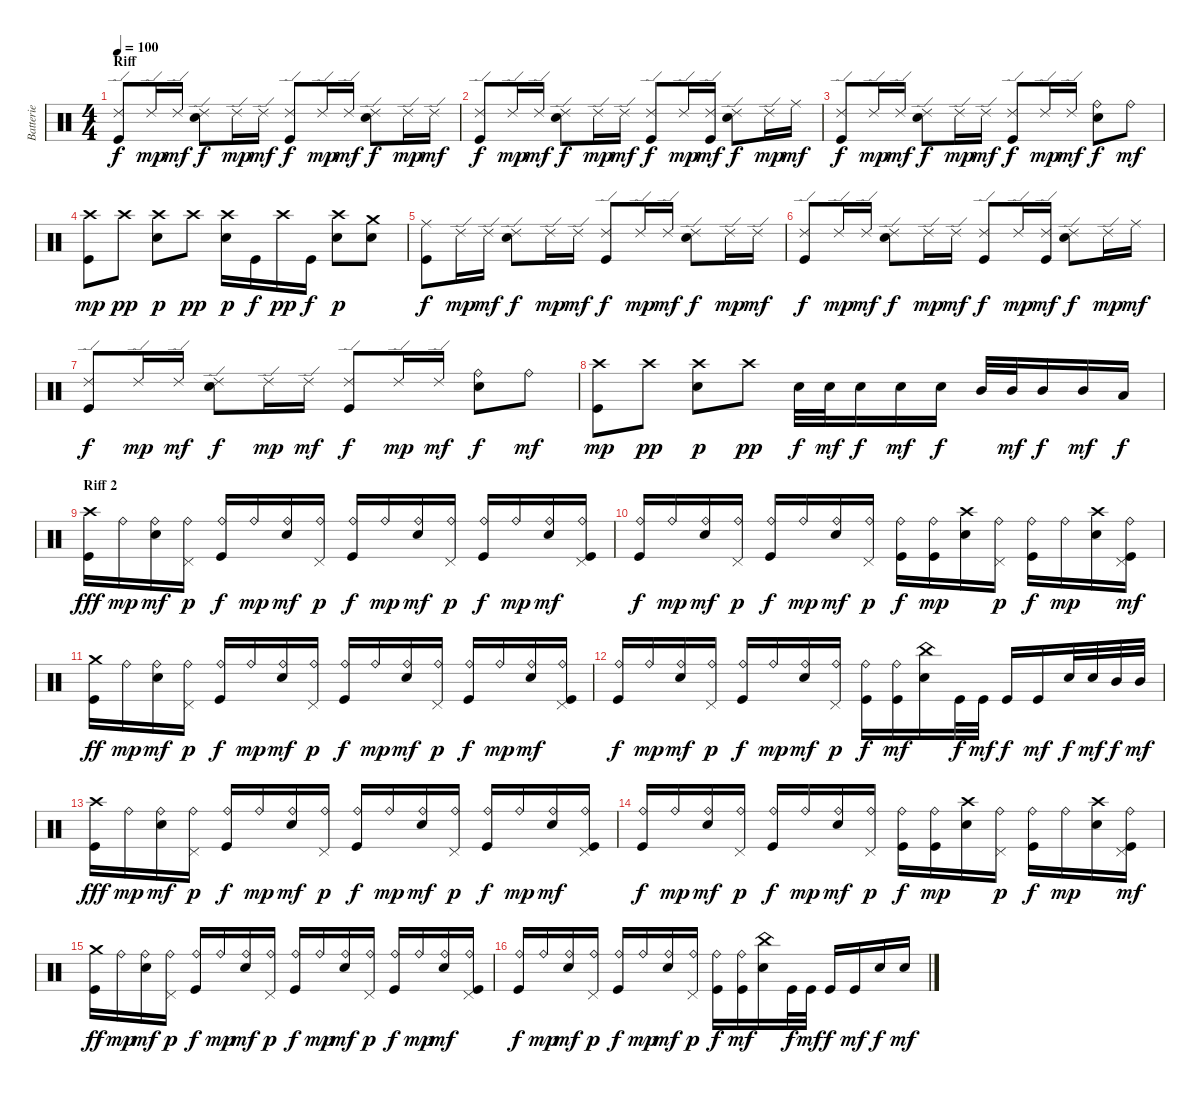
\track ("Batterie" "Batterie") {instrument percussion}
\staff {score}
\articulation defaults
\ts (4 4)
\section ("" "Riff")
\tempo 100
\clef neutral
\ks c
("Ride (edge) 2" "Kick (hit)").8{dy f} "Ride (edge) 2".16{dy mp} "Ride (edge) 2".16{dy mf} ("Ride (edge) 2" "Snare (hit) 2").8{dy f} "Ride (edge) 2".16{dy mp} "Ride (edge) 2".16{dy mf} ("Ride (edge) 2" "Kick (hit)").8{dy f} "Ride (edge) 2".16{dy mp} "Ride (edge) 2".16{dy mf} ("Ride (edge) 2" "Snare (hit) 2").8{dy f} "Ride (edge) 2".16{dy mp} "Ride (edge) 2".16{dy mf} |
("Ride (edge) 2" "Kick (hit)").8{dy f} "Ride (edge) 2".16{dy mp} "Ride (edge) 2".16{dy mf} ("Ride (edge) 2" "Snare (hit) 2").8{dy f} "Ride (edge) 2".16{dy mp} "Ride (edge) 2".16{dy mf} ("Ride (edge) 2" "Kick (hit)").8{dy f} "Ride (edge) 2".16{dy mp} ("Ride (edge) 2" "Kick (hit)").16{dy mf} ("Ride (edge) 2" "Snare (hit) 2").8{dy f} "Ride (edge) 2".16{dy mp} "Ride (middle)".16{dy mf} |
("Ride (edge) 2" "Kick (hit)").8{dy f} "Ride (edge) 2".16{dy mp} "Ride (edge) 2".16{dy mf} ("Ride (edge) 2" "Snare (hit) 2").8{dy f} "Ride (edge) 2".16{dy mp} "Ride (edge) 2".16{dy mf} ("Ride (edge) 2" "Kick (hit)").8{dy f} "Ride (edge) 2".16{dy mp} "Ride (edge) 2".16{dy mf} ("Ride (bell)" "Snare (hit) 2").8{dy f} "Ride (bell)".8{dy mf} |
("Crash high (hit)" "Kick (hit)").8{dy mp} "Crash high (hit)".8{dy pp} ("Crash high (hit)" "Snare (hit) 2").8{dy p} "Crash high (hit)".8{dy pp} ("Crash high (hit)" "Snare (hit) 2").16{dy p} "Kick (hit)".16{dy f} "Crash high (hit)".16{dy pp} "Kick (hit)".16{dy f} ("Crash high (hit)" "Snare (hit) 2").8{dy p} ("Crash medium (hit)" "Snare (hit) 2").8 |
("Ride (middle)" "Kick (hit)").8{dy f} "Ride (edge) 2".16{dy mp} "Ride (edge) 2".16{dy mf} ("Ride (edge) 2" "Snare (hit) 2").8{dy f} "Ride (edge) 2".16{dy mp} "Ride (edge) 2".16{dy mf} ("Ride (edge) 2" "Kick (hit)").8{dy f} "Ride (edge) 2".16{dy mp} "Ride (edge) 2".16{dy mf} ("Ride (edge) 2" "Snare (hit) 2").8{dy f} "Ride (edge) 2".16{dy mp} "Ride (edge) 2".16{dy mf} |
("Ride (edge) 2" "Kick (hit)").8{dy f} "Ride (edge) 2".16{dy mp} "Ride (edge) 2".16{dy mf} ("Ride (edge) 2" "Snare (hit) 2").8{dy f} "Ride (edge) 2".16{dy mp} "Ride (edge) 2".16{dy mf} ("Ride (edge) 2" "Kick (hit)").8{dy f} "Ride (edge) 2".16{dy mp} ("Ride (edge) 2" "Kick (hit)").16{dy mf} ("Ride (edge) 2" "Snare (hit) 2").8{dy f} "Ride (edge) 2".16{dy mp} "Ride (middle)".16{dy mf} |
("Ride (edge) 2" "Kick (hit)").8{dy f} "Ride (edge) 2".16{dy mp} "Ride (edge) 2".16{dy mf} ("Ride (edge) 2" "Snare (hit) 2").8{dy f} "Ride (edge) 2".16{dy mp} "Ride (edge) 2".16{dy mf} ("Ride (edge) 2" "Kick (hit)").8{dy f} "Ride (edge) 2".16{dy mp} "Ride (edge) 2".16{dy mf} ("Ride (bell)" "Snare (hit) 2").8{dy f} "Ride (bell)".8{dy mf} |
("Crash high (hit)" "Kick (hit)").8{dy mp} "Crash high (hit)".8{dy pp} ("Crash high (hit)" "Snare (hit) 2").8{dy p} "Crash high (hit)".8{dy pp} "Snare (hit) 2".32{dy f} "Snare (hit) 2".32{dy mf} "Snare (hit) 2".16{dy f} "Snare (hit) 2".16{dy mf} "Snare (hit) 2".16{dy f} "Mid Tom (hit)".32 "Mid Tom (hit)".32{dy mf} "Mid Tom (hit)".16{dy f} "Mid Tom (hit)".16{dy mf} "Low Tom (hit)".16{dy f} |
\section ("" "Riff 2")
("Crash high (hit)" "Kick (hit)").16{dy fff} "Ride (bell)".16{dy mp} ("Ride (bell)" "Snare (hit) 2").16{dy mf} ("Ride (bell)" "Pedal Hi-Hat (hit)").16{dy p} ("Ride (bell)" "Kick (hit)").16{dy f} "Ride (bell)".16{dy mp} ("Ride (bell)" "Snare (hit) 2").16{dy mf} ("Ride (bell)" "Pedal Hi-Hat (hit)").16{dy p} ("Ride (bell)" "Kick (hit)").16{dy f} "Ride (bell)".16{dy mp} ("Ride (bell)" "Snare (hit) 2").16{dy mf} ("Ride (bell)" "Pedal Hi-Hat (hit)").16{dy p} ("Ride (bell)" "Kick (hit)").16{dy f} "Ride (bell)".16{dy mp} ("Ride (bell)" "Snare (hit) 2").16{dy mf} ("Ride (bell)" "Pedal Hi-Hat (hit)" "Kick (hit)").16 |
("Ride (bell)" "Kick (hit)").16{dy f} "Ride (bell)".16{dy mp} ("Ride (bell)" "Snare (hit) 2").16{dy mf} ("Ride (bell)" "Pedal Hi-Hat (hit)").16{dy p} ("Ride (bell)" "Kick (hit)").16{dy f} "Ride (bell)".16{dy mp} ("Ride (bell)" "Snare (hit) 2").16{dy mf} ("Ride (bell)" "Pedal Hi-Hat (hit)").16{dy p} ("Ride (bell)" "Kick (hit)").16{dy f} ("Ride (bell)" "Kick (hit)").16{dy mp} ("Crash high (hit)" "Snare (hit) 2").16 ("Ride (bell)" "Pedal Hi-Hat (hit)").16{dy p} ("Ride (bell)" "Kick (hit)").16{dy f} "Ride (bell)".16{dy mp} ("Crash high (hit)" "Snare (hit) 2").16 ("Ride (bell)" "Pedal Hi-Hat (hit)" "Kick (hit)").16{dy mf} |
("Crash medium (hit)" "Kick (hit)").16{dy ff} "Ride (bell)".16{dy mp} ("Ride (bell)" "Snare (hit) 2").16{dy mf} ("Ride (bell)" "Pedal Hi-Hat (hit)").16{dy p} ("Ride (bell)" "Kick (hit)").16{dy f} "Ride (bell)".16{dy mp} ("Ride (bell)" "Snare (hit) 2").16{dy mf} ("Ride (bell)" "Pedal Hi-Hat (hit)").16{dy p} ("Ride (bell)" "Kick (hit)").16{dy f} "Ride (bell)".16{dy mp} ("Ride (bell)" "Snare (hit) 2").16{dy mf} ("Ride (bell)" "Pedal Hi-Hat (hit)").16{dy p} ("Ride (bell)" "Kick (hit)").16{dy f} "Ride (bell)".16{dy mp} ("Ride (bell)" "Snare (hit) 2").16{dy mf} ("Ride (bell)" "Pedal Hi-Hat (hit)" "Kick (hit)").16 |
("Ride (bell)" "Kick (hit)").16{dy f} "Ride (bell)".16{dy mp} ("Ride (bell)" "Snare (hit) 2").16{dy mf} ("Ride (bell)" "Pedal Hi-Hat (hit)").16{dy p} ("Ride (bell)" "Kick (hit)").16{dy f} "Ride (bell)".16{dy mp} ("Ride (bell)" "Snare (hit) 2").16{dy mf} ("Ride (bell)" "Pedal Hi-Hat (hit)").16{dy p} ("Ride (bell)" "Kick (hit)").16{dy f} ("Ride (bell)" "Kick (hit)").16{dy mf} ("China (hit)" "Snare (hit) 2").16 "Kick (hit)".32{dy f} "Kick (hit)".32{dy mf} "Kick (hit)".16{dy f} "Kick (hit)".16{dy mf} "Snare (hit) 2".32{dy f} "Snare (hit) 2".32{dy mf} "Mid Tom (hit)".32{dy f} "Mid Tom (hit)".32{dy mf} |
("Crash high (hit)" "Kick (hit)").16{dy fff} "Ride (bell)".16{dy mp} ("Ride (bell)" "Snare (hit) 2").16{dy mf} ("Ride (bell)" "Pedal Hi-Hat (hit)").16{dy p} ("Ride (bell)" "Kick (hit)").16{dy f} "Ride (bell)".16{dy mp} ("Ride (bell)" "Snare (hit) 2").16{dy mf} ("Ride (bell)" "Pedal Hi-Hat (hit)").16{dy p} ("Ride (bell)" "Kick (hit)").16{dy f} "Ride (bell)".16{dy mp} ("Ride (bell)" "Snare (hit) 2").16{dy mf} ("Ride (bell)" "Pedal Hi-Hat (hit)").16{dy p} ("Ride (bell)" "Kick (hit)").16{dy f} "Ride (bell)".16{dy mp} ("Ride (bell)" "Snare (hit) 2").16{dy mf} ("Ride (bell)" "Pedal Hi-Hat (hit)" "Kick (hit)").16 |
("Ride (bell)" "Kick (hit)").16{dy f} "Ride (bell)".16{dy mp} ("Ride (bell)" "Snare (hit) 2").16{dy mf} ("Ride (bell)" "Pedal Hi-Hat (hit)").16{dy p} ("Ride (bell)" "Kick (hit)").16{dy f} "Ride (bell)".16{dy mp} ("Ride (bell)" "Snare (hit) 2").16{dy mf} ("Ride (bell)" "Pedal Hi-Hat (hit)").16{dy p} ("Ride (bell)" "Kick (hit)").16{dy f} ("Ride (bell)" "Kick (hit)").16{dy mp} ("Crash high (hit)" "Snare (hit) 2").16 ("Ride (bell)" "Pedal Hi-Hat (hit)").16{dy p} ("Ride (bell)" "Kick (hit)").16{dy f} "Ride (bell)".16{dy mp} ("Crash high (hit)" "Snare (hit) 2").16 ("Ride (bell)" "Pedal Hi-Hat (hit)" "Kick (hit)").16{dy mf} |
("Crash medium (hit)" "Kick (hit)").16{dy ff} "Ride (bell)".16{dy mp} ("Ride (bell)" "Snare (hit) 2").16{dy mf} ("Ride (bell)" "Pedal Hi-Hat (hit)").16{dy p} ("Ride (bell)" "Kick (hit)").16{dy f} "Ride (bell)".16{dy mp} ("Ride (bell)" "Snare (hit) 2").16{dy mf} ("Ride (bell)" "Pedal Hi-Hat (hit)").16{dy p} ("Ride (bell)" "Kick (hit)").16{dy f} "Ride (bell)".16{dy mp} ("Ride (bell)" "Snare (hit) 2").16{dy mf} ("Ride (bell)" "Pedal Hi-Hat (hit)").16{dy p} ("Ride (bell)" "Kick (hit)").16{dy f} "Ride (bell)".16{dy mp} ("Ride (bell)" "Snare (hit) 2").16{dy mf} ("Ride (bell)" "Pedal Hi-Hat (hit)" "Kick (hit)").16 |
("Ride (bell)" "Kick (hit)").16{dy f} "Ride (bell)".16{dy mp} ("Ride (bell)" "Snare (hit) 2").16{dy mf} ("Ride (bell)" "Pedal Hi-Hat (hit)").16{dy p} ("Ride (bell)" "Kick (hit)").16{dy f} "Ride (bell)".16{dy mp} ("Ride (bell)" "Snare (hit) 2").16{dy mf} ("Ride (bell)" "Pedal Hi-Hat (hit)").16{dy p} ("Ride (bell)" "Kick (hit)").16{dy f} ("Ride (bell)" "Kick (hit)").16{dy mf} ("China (hit)" "Snare (hit) 2").16 "Kick (hit)".32{dy f} "Kick (hit)".32{dy mf} "Kick (hit)".16{dy f} "Kick (hit)".16{dy mf} "Snare (hit) 2".16{dy f} "Snare (hit) 2".16{dy mf}
